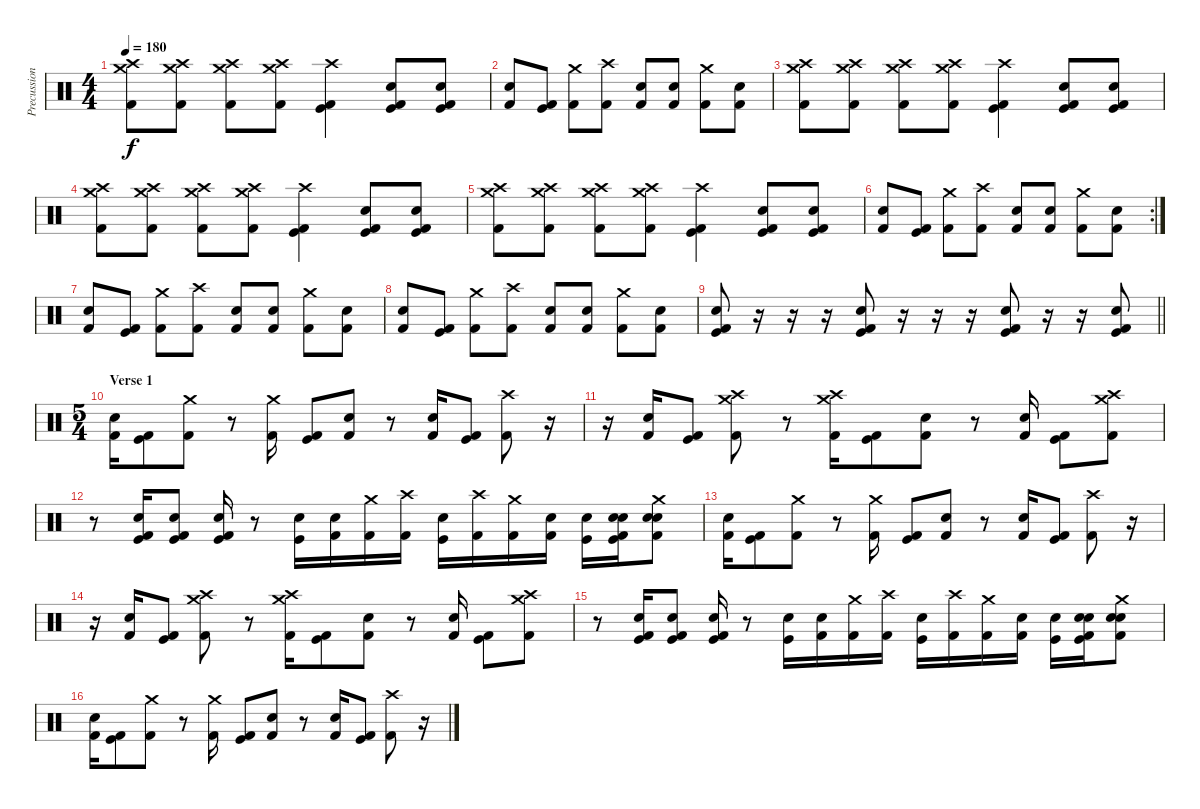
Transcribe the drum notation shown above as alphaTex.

\track ("Precussion" "Precussion") {instrument percussion}
\staff {score}
\articulation defaults
\ts (4 4)
\tempo 180
\clef neutral
\ks c
("Crash medium (hit)" "Crash high (hit)" "Kick (hit) 2").8{dy f} ("Crash medium (hit)" "Crash high (hit)" "Kick (hit) 2").8 ("Crash medium (hit)" "Crash high (hit)" "Kick (hit) 2").8 ("Crash medium (hit)" "Crash high (hit)" "Kick (hit) 2").8 ("Kick (hit)" "Crash high (hit)" "Kick (hit) 2").4 ("Electric Snare (hit)" "Kick (hit)" "Kick (hit) 2").8 ("Electric Snare (hit)" "Kick (hit)" "Kick (hit) 2").8 |
("Electric Snare (hit)" "Kick (hit) 2").8 ("Kick (hit)" "Kick (hit) 2").8 ("Crash medium (hit)" "Kick (hit) 2").8 ("Crash high (hit)" "Kick (hit) 2").8 ("Snare (hit) 2" "Kick (hit) 2").8 ("Electric Snare (hit)" "Kick (hit) 2").8 ("Crash medium (hit)" "Kick (hit) 2").8 ("Snare (hit) 2" "Kick (hit) 2").8 |
("Crash medium (hit)" "Crash high (hit)" "Kick (hit) 2").8 ("Crash medium (hit)" "Crash high (hit)" "Kick (hit) 2").8 ("Crash medium (hit)" "Crash high (hit)" "Kick (hit) 2").8 ("Crash medium (hit)" "Crash high (hit)" "Kick (hit) 2").8 ("Kick (hit)" "Crash high (hit)" "Kick (hit) 2").4 ("Electric Snare (hit)" "Kick (hit)" "Kick (hit) 2").8 ("Electric Snare (hit)" "Kick (hit)" "Kick (hit) 2").8 |
("Crash medium (hit)" "Crash high (hit)" "Kick (hit) 2").8 ("Crash medium (hit)" "Crash high (hit)" "Kick (hit) 2").8 ("Crash medium (hit)" "Crash high (hit)" "Kick (hit) 2").8 ("Crash medium (hit)" "Crash high (hit)" "Kick (hit) 2").8 ("Kick (hit)" "Crash high (hit)" "Kick (hit) 2").4 ("Electric Snare (hit)" "Kick (hit)" "Kick (hit) 2").8 ("Electric Snare (hit)" "Kick (hit)" "Kick (hit) 2").8 |
("Crash medium (hit)" "Crash high (hit)" "Kick (hit) 2").8 ("Crash medium (hit)" "Crash high (hit)" "Kick (hit) 2").8 ("Crash medium (hit)" "Crash high (hit)" "Kick (hit) 2").8 ("Crash medium (hit)" "Crash high (hit)" "Kick (hit) 2").8 ("Kick (hit)" "Crash high (hit)" "Kick (hit) 2").4 ("Electric Snare (hit)" "Kick (hit)" "Kick (hit) 2").8 ("Electric Snare (hit)" "Kick (hit)" "Kick (hit) 2").8 |
\rc 2
("Electric Snare (hit)" "Kick (hit) 2").8 ("Kick (hit)" "Kick (hit) 2").8 ("Crash medium (hit)" "Kick (hit) 2").8 ("Crash high (hit)" "Kick (hit) 2").8 ("Snare (hit) 2" "Kick (hit) 2").8 ("Electric Snare (hit)" "Kick (hit) 2").8 ("Crash medium (hit)" "Kick (hit) 2").8 ("Snare (hit) 2" "Kick (hit) 2").8 |
("Electric Snare (hit)" "Kick (hit) 2").8 ("Kick (hit)" "Kick (hit) 2").8 ("Crash medium (hit)" "Kick (hit) 2").8 ("Crash high (hit)" "Kick (hit) 2").8 ("Snare (hit) 2" "Kick (hit) 2").8 ("Electric Snare (hit)" "Kick (hit) 2").8 ("Crash medium (hit)" "Kick (hit) 2").8 ("Snare (hit) 2" "Kick (hit) 2").8 |
("Electric Snare (hit)" "Kick (hit) 2").8 ("Kick (hit)" "Kick (hit) 2").8 ("Crash medium (hit)" "Kick (hit) 2").8 ("Crash high (hit)" "Kick (hit) 2").8 ("Snare (hit) 2" "Kick (hit) 2").8 ("Electric Snare (hit)" "Kick (hit) 2").8 ("Crash medium (hit)" "Kick (hit) 2").8 ("Snare (hit) 2" "Kick (hit) 2").8 |
\barLineRight lightlight
("Kick (hit)" "Snare (hit) 2" "Kick (hit) 2").8 r.16 r.16 r.16 ("Kick (hit)" "Snare (hit) 2" "Kick (hit) 2").8 r.16 r.16 r.16 ("Kick (hit)" "Snare (hit) 2" "Kick (hit) 2").8 r.16 r.16 ("Kick (hit)" "Snare (hit) 2" "Kick (hit) 2").8 |
\ts (5 4)
\section ("" "Verse 1")
("Electric Snare (hit)" "Kick (hit) 2").16 ("Kick (hit)" "Kick (hit) 2").8 ("Crash medium (hit)" "Kick (hit) 2").8 r.8 ("Crash medium (hit)" "Kick (hit) 2").16 ("Kick (hit)" "Kick (hit) 2").8 ("Electric Snare (hit)" "Kick (hit) 2").8 r.8 ("Electric Snare (hit)" "Kick (hit) 2").16 ("Kick (hit)" "Kick (hit) 2").8 ("Crash high (hit)" "Kick (hit) 2").8 r.16 |
r.16 ("Electric Snare (hit)" "Kick (hit) 2").16 ("Kick (hit)" "Kick (hit) 2").8 ("Crash high (hit)" "Crash medium (hit)" "Kick (hit) 2").8 r.8 ("Crash high (hit)" "Crash medium (hit)" "Kick (hit) 2").16 ("Kick (hit)" "Kick (hit) 2").8 ("Electric Snare (hit)" "Kick (hit) 2").8 r.8 ("Electric Snare (hit)" "Kick (hit) 2").16 ("Kick (hit)" "Kick (hit) 2").8 ("Crash high (hit)" "Crash medium (hit)" "Kick (hit) 2").8 |
r.8 ("Kick (hit)" "Electric Snare (hit)" "Kick (hit) 2").16 ("Kick (hit)" "Electric Snare (hit)" "Kick (hit) 2").8 ("Kick (hit)" "Electric Snare (hit)" "Kick (hit) 2").16 r.8 ("Electric Snare (hit)" "Kick (hit)").16 ("Electric Snare (hit)" "Kick (hit) 2").16 ("Crash medium (hit)" "Kick (hit) 2").16 ("Crash high (hit)" "Kick (hit) 2").16 ("Electric Snare (hit)" "Kick (hit)").16 ("Crash high (hit)" "Kick (hit) 2").16 ("Crash medium (hit)" "Kick (hit) 2").16 ("Electric Snare (hit)" "Kick (hit) 2").16 ("Electric Snare (hit)" "Kick (hit)").16 ("Kick (hit)" "Electric Snare (hit)" "Electric Snare (hit)" "Kick (hit) 2").16 ("Crash medium (hit)" "Electric Snare (hit)" "Electric Snare (hit)" "Kick (hit) 2").8 |
("Electric Snare (hit)" "Kick (hit) 2").16 ("Kick (hit)" "Kick (hit) 2").8 ("Crash medium (hit)" "Kick (hit) 2").8 r.8 ("Crash medium (hit)" "Kick (hit) 2").16 ("Kick (hit)" "Kick (hit) 2").8 ("Electric Snare (hit)" "Kick (hit) 2").8 r.8 ("Electric Snare (hit)" "Kick (hit) 2").16 ("Kick (hit)" "Kick (hit) 2").8 ("Crash high (hit)" "Kick (hit) 2").8 r.16 |
r.16 ("Electric Snare (hit)" "Kick (hit) 2").16 ("Kick (hit)" "Kick (hit) 2").8 ("Crash high (hit)" "Crash medium (hit)" "Kick (hit) 2").8 r.8 ("Crash high (hit)" "Crash medium (hit)" "Kick (hit) 2").16 ("Kick (hit)" "Kick (hit) 2").8 ("Electric Snare (hit)" "Kick (hit) 2").8 r.8 ("Electric Snare (hit)" "Kick (hit) 2").16 ("Kick (hit)" "Kick (hit) 2").8 ("Crash high (hit)" "Crash medium (hit)" "Kick (hit) 2").8 |
r.8 ("Kick (hit)" "Electric Snare (hit)" "Kick (hit) 2").16 ("Kick (hit)" "Electric Snare (hit)" "Kick (hit) 2").8 ("Kick (hit)" "Electric Snare (hit)" "Kick (hit) 2").16 r.8 ("Electric Snare (hit)" "Kick (hit)").16 ("Electric Snare (hit)" "Kick (hit) 2").16 ("Crash medium (hit)" "Kick (hit) 2").16 ("Crash high (hit)" "Kick (hit) 2").16 ("Electric Snare (hit)" "Kick (hit)").16 ("Crash high (hit)" "Kick (hit) 2").16 ("Crash medium (hit)" "Kick (hit) 2").16 ("Electric Snare (hit)" "Kick (hit) 2").16 ("Electric Snare (hit)" "Kick (hit)").16 ("Kick (hit)" "Electric Snare (hit)" "Electric Snare (hit)" "Kick (hit) 2").16 ("Crash medium (hit)" "Electric Snare (hit)" "Electric Snare (hit)" "Kick (hit) 2").8 |
("Electric Snare (hit)" "Kick (hit) 2").16 ("Kick (hit)" "Kick (hit) 2").8 ("Crash medium (hit)" "Kick (hit) 2").8 r.8 ("Crash medium (hit)" "Kick (hit) 2").16 ("Kick (hit)" "Kick (hit) 2").8 ("Electric Snare (hit)" "Kick (hit) 2").8 r.8 ("Electric Snare (hit)" "Kick (hit) 2").16 ("Kick (hit)" "Kick (hit) 2").8 ("Crash high (hit)" "Kick (hit) 2").8 r.16
